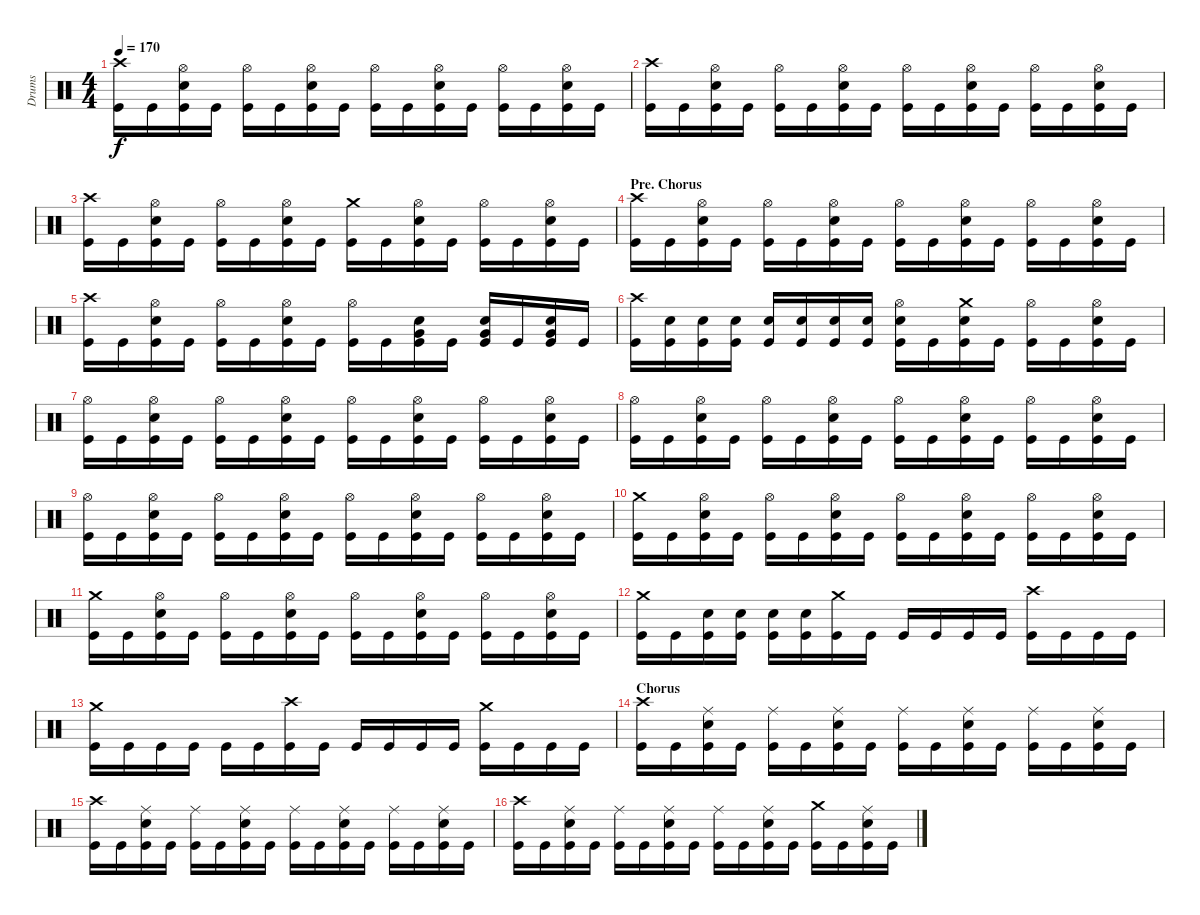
\track ("Drums" "Drums") {instrument percussion}
\staff {score}
\articulation defaults
\ts (4 4)
\tempo 170
\clef neutral
\ks c
("Crash high (hit)" "Kick (hit)").16{dy f} "Kick (hit)".16 ("Hi-Hat (open)" "Electric Snare (hit)" "Kick (hit)").16 "Kick (hit)".16 ("Hi-Hat (open)" "Kick (hit)").16 "Kick (hit)".16 ("Hi-Hat (open)" "Electric Snare (hit)" "Kick (hit)").16 "Kick (hit)".16 ("Hi-Hat (open)" "Kick (hit)").16 "Kick (hit)".16 ("Hi-Hat (open)" "Electric Snare (hit)" "Kick (hit)").16 "Kick (hit)".16 ("Hi-Hat (open)" "Kick (hit)").16 "Kick (hit)".16 ("Hi-Hat (open)" "Electric Snare (hit)" "Kick (hit)").16 "Kick (hit)".16 |
("Crash high (hit)" "Kick (hit)").16 "Kick (hit)".16 ("Hi-Hat (open)" "Electric Snare (hit)" "Kick (hit)").16 "Kick (hit)".16 ("Hi-Hat (open)" "Kick (hit)").16 "Kick (hit)".16 ("Hi-Hat (open)" "Electric Snare (hit)" "Kick (hit)").16 "Kick (hit)".16 ("Hi-Hat (open)" "Kick (hit)").16 "Kick (hit)".16 ("Hi-Hat (open)" "Electric Snare (hit)" "Kick (hit)").16 "Kick (hit)".16 ("Hi-Hat (open)" "Kick (hit)").16 "Kick (hit)".16 ("Hi-Hat (open)" "Electric Snare (hit)" "Kick (hit)").16 "Kick (hit)".16 |
("Crash high (hit)" "Kick (hit)").16 "Kick (hit)".16 ("Hi-Hat (open)" "Electric Snare (hit)" "Kick (hit)").16 "Kick (hit)".16 ("Hi-Hat (open)" "Kick (hit)").16 "Kick (hit)".16 ("Hi-Hat (open)" "Electric Snare (hit)" "Kick (hit)").16 "Kick (hit)".16 ("Crash medium (hit)" "Kick (hit)").16 "Kick (hit)".16 ("Hi-Hat (open)" "Electric Snare (hit)" "Kick (hit)").16 "Kick (hit)".16 ("Hi-Hat (open)" "Kick (hit)").16 "Kick (hit)".16 ("Hi-Hat (open)" "Electric Snare (hit)" "Kick (hit)").16 "Kick (hit)".16 |
\section ("" "Pre. Chorus")
("Crash high (hit)" "Kick (hit)").16 "Kick (hit)".16 ("Hi-Hat (open)" "Electric Snare (hit)" "Kick (hit)").16 "Kick (hit)".16 ("Hi-Hat (open)" "Kick (hit)").16 "Kick (hit)".16 ("Hi-Hat (open)" "Electric Snare (hit)" "Kick (hit)").16 "Kick (hit)".16 ("Hi-Hat (open)" "Kick (hit)").16 "Kick (hit)".16 ("Hi-Hat (open)" "Electric Snare (hit)" "Kick (hit)").16 "Kick (hit)".16 ("Hi-Hat (open)" "Kick (hit)").16 "Kick (hit)".16 ("Hi-Hat (open)" "Electric Snare (hit)" "Kick (hit)").16 "Kick (hit)".16 |
("Crash high (hit)" "Kick (hit)").16 "Kick (hit)".16 ("Hi-Hat (open)" "Electric Snare (hit)" "Kick (hit)").16 "Kick (hit)".16 ("Hi-Hat (open)" "Kick (hit)").16 "Kick (hit)".16 ("Hi-Hat (open)" "Electric Snare (hit)" "Kick (hit)").16 "Kick (hit)".16 ("Hi-Hat (open)" "Kick (hit)").16 "Kick (hit)".16 ("Very Low Tom (hit)" "Electric Snare (hit)" "Kick (hit)").16 "Kick (hit)".16 ("Very Low Tom (hit)" "Electric Snare (hit)" "Kick (hit)").16 "Kick (hit)".16 ("Very Low Tom (hit)" "Electric Snare (hit)" "Kick (hit)").16 "Kick (hit)".16 |
("Crash high (hit)" "Kick (hit)").16 ("Electric Snare (hit)" "Kick (hit)").16 ("Electric Snare (hit)" "Kick (hit)").16 ("Electric Snare (hit)" "Kick (hit)").16 ("Electric Snare (hit)" "Kick (hit)").16 ("Electric Snare (hit)" "Kick (hit)").16 ("Electric Snare (hit)" "Kick (hit)").16 ("Electric Snare (hit)" "Kick (hit)").16 ("Hi-Hat (open)" "Electric Snare (hit)" "Kick (hit)").16 "Kick (hit)".16 ("Crash medium (hit)" "Electric Snare (hit)" "Kick (hit)").16 "Kick (hit)".16 ("Hi-Hat (open)" "Kick (hit)").16 "Kick (hit)".16 ("Hi-Hat (open)" "Electric Snare (hit)" "Kick (hit)").16 "Kick (hit)".16 |
("Hi-Hat (open)" "Kick (hit)").16 "Kick (hit)".16 ("Hi-Hat (open)" "Electric Snare (hit)" "Kick (hit)").16 "Kick (hit)".16 ("Hi-Hat (open)" "Kick (hit)").16 "Kick (hit)".16 ("Hi-Hat (open)" "Electric Snare (hit)" "Kick (hit)").16 "Kick (hit)".16 ("Hi-Hat (open)" "Kick (hit)").16 "Kick (hit)".16 ("Hi-Hat (open)" "Electric Snare (hit)" "Kick (hit)").16 "Kick (hit)".16 ("Hi-Hat (open)" "Kick (hit)").16 "Kick (hit)".16 ("Hi-Hat (open)" "Electric Snare (hit)" "Kick (hit)").16 "Kick (hit)".16 |
("Hi-Hat (open)" "Kick (hit)").16 "Kick (hit)".16 ("Hi-Hat (open)" "Electric Snare (hit)" "Kick (hit)").16 "Kick (hit)".16 ("Hi-Hat (open)" "Kick (hit)").16 "Kick (hit)".16 ("Hi-Hat (open)" "Electric Snare (hit)" "Kick (hit)").16 "Kick (hit)".16 ("Hi-Hat (open)" "Kick (hit)").16 "Kick (hit)".16 ("Hi-Hat (open)" "Electric Snare (hit)" "Kick (hit)").16 "Kick (hit)".16 ("Hi-Hat (open)" "Kick (hit)").16 "Kick (hit)".16 ("Hi-Hat (open)" "Electric Snare (hit)" "Kick (hit)").16 "Kick (hit)".16 |
("Hi-Hat (open)" "Kick (hit)").16 "Kick (hit)".16 ("Hi-Hat (open)" "Electric Snare (hit)" "Kick (hit)").16 "Kick (hit)".16 ("Hi-Hat (open)" "Kick (hit)").16 "Kick (hit)".16 ("Hi-Hat (open)" "Electric Snare (hit)" "Kick (hit)").16 "Kick (hit)".16 ("Hi-Hat (open)" "Kick (hit)").16 "Kick (hit)".16 ("Hi-Hat (open)" "Electric Snare (hit)" "Kick (hit)").16 "Kick (hit)".16 ("Hi-Hat (open)" "Kick (hit)").16 "Kick (hit)".16 ("Hi-Hat (open)" "Electric Snare (hit)" "Kick (hit)").16 "Kick (hit)".16 |
("Crash medium (hit)" "Kick (hit)").16 "Kick (hit)".16 ("Hi-Hat (open)" "Electric Snare (hit)" "Kick (hit)").16 "Kick (hit)".16 ("Hi-Hat (open)" "Kick (hit)").16 "Kick (hit)".16 ("Hi-Hat (open)" "Electric Snare (hit)" "Kick (hit)").16 "Kick (hit)".16 ("Hi-Hat (open)" "Kick (hit)").16 "Kick (hit)".16 ("Hi-Hat (open)" "Electric Snare (hit)" "Kick (hit)").16 "Kick (hit)".16 ("Hi-Hat (open)" "Kick (hit)").16 "Kick (hit)".16 ("Hi-Hat (open)" "Electric Snare (hit)" "Kick (hit)").16 "Kick (hit)".16 |
("Crash medium (hit)" "Kick (hit)").16 "Kick (hit)".16 ("Hi-Hat (open)" "Electric Snare (hit)" "Kick (hit)").16 "Kick (hit)".16 ("Hi-Hat (open)" "Kick (hit)").16 "Kick (hit)".16 ("Hi-Hat (open)" "Electric Snare (hit)" "Kick (hit)").16 "Kick (hit)".16 ("Hi-Hat (open)" "Kick (hit)").16 "Kick (hit)".16 ("Hi-Hat (open)" "Electric Snare (hit)" "Kick (hit)").16 "Kick (hit)".16 ("Hi-Hat (open)" "Kick (hit)").16 "Kick (hit)".16 ("Hi-Hat (open)" "Electric Snare (hit)" "Kick (hit)").16 "Kick (hit)".16 |
("Crash medium (hit)" "Kick (hit)").16 "Kick (hit)".16 ("Electric Snare (hit)" "Kick (hit)").16 ("Electric Snare (hit)" "Kick (hit)").16 ("Electric Snare (hit)" "Kick (hit)").16 ("Electric Snare (hit)" "Kick (hit)").16 ("Crash medium (hit)" "Kick (hit)").16 "Kick (hit)".16 "Kick (hit)".16 "Kick (hit)".16 "Kick (hit)".16 "Kick (hit)".16 ("Crash high (hit)" "Kick (hit)").16 "Kick (hit)".16 "Kick (hit)".16 "Kick (hit)".16 |
("Crash medium (hit)" "Kick (hit)").16 "Kick (hit)".16 "Kick (hit)".16 "Kick (hit)".16 "Kick (hit)".16 "Kick (hit)".16 ("Crash high (hit)" "Kick (hit)").16 "Kick (hit)".16 "Kick (hit)".16 "Kick (hit)".16 "Kick (hit)".16 "Kick (hit)".16 ("Crash medium (hit)" "Kick (hit)").16 "Kick (hit)".16 "Kick (hit)".16 "Kick (hit)".16 |
\section ("" "Chorus")
("Crash high (hit)" "Kick (hit)").16 "Kick (hit)".16 ("Ride (middle)" "Electric Snare (hit)" "Kick (hit)").16 "Kick (hit)".16 ("Ride (middle)" "Kick (hit)").16 "Kick (hit)".16 ("Ride (middle)" "Electric Snare (hit)" "Kick (hit)").16 "Kick (hit)".16 ("Ride (middle)" "Kick (hit)").16 "Kick (hit)".16 ("Ride (middle)" "Electric Snare (hit)" "Kick (hit)").16 "Kick (hit)".16 ("Ride (middle)" "Kick (hit)").16 "Kick (hit)".16 ("Ride (middle)" "Electric Snare (hit)" "Kick (hit)").16 "Kick (hit)".16 |
("Crash high (hit)" "Kick (hit)").16 "Kick (hit)".16 ("Ride (middle)" "Electric Snare (hit)" "Kick (hit)").16 "Kick (hit)".16 ("Ride (middle)" "Kick (hit)").16 "Kick (hit)".16 ("Ride (middle)" "Electric Snare (hit)" "Kick (hit)").16 "Kick (hit)".16 ("Ride (middle)" "Kick (hit)").16 "Kick (hit)".16 ("Ride (middle)" "Electric Snare (hit)" "Kick (hit)").16 "Kick (hit)".16 ("Ride (middle)" "Kick (hit)").16 "Kick (hit)".16 ("Ride (middle)" "Electric Snare (hit)" "Kick (hit)").16 "Kick (hit)".16 |
("Crash high (hit)" "Kick (hit)").16 "Kick (hit)".16 ("Ride (middle)" "Electric Snare (hit)" "Kick (hit)").16 "Kick (hit)".16 ("Ride (middle)" "Kick (hit)").16 "Kick (hit)".16 ("Ride (middle)" "Electric Snare (hit)" "Kick (hit)").16 "Kick (hit)".16 ("Ride (middle)" "Kick (hit)").16 "Kick (hit)".16 ("Ride (middle)" "Electric Snare (hit)" "Kick (hit)").16 "Kick (hit)".16 ("Crash medium (hit)" "Kick (hit)").16 "Kick (hit)".16 ("Ride (middle)" "Electric Snare (hit)" "Kick (hit)").16 "Kick (hit)".16
